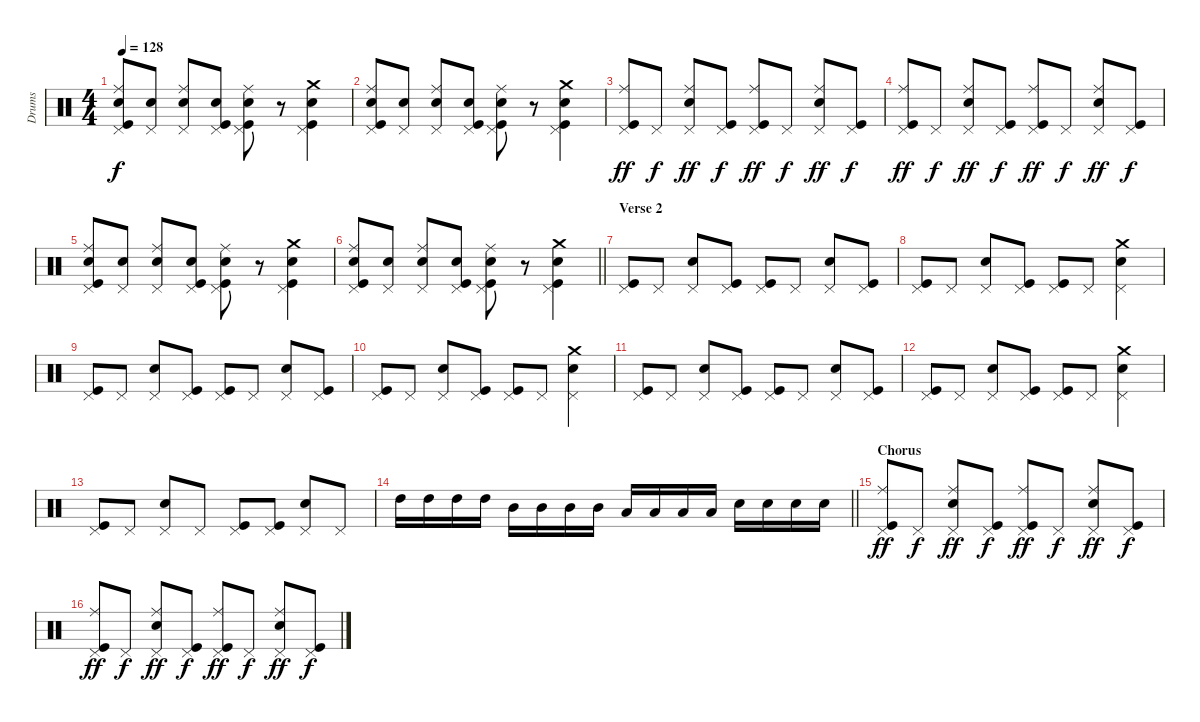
\track ("Drums" "Drums") {instrument percussion}
\staff {score}
\articulation defaults
\ts (4 4)
\tempo 128
\clef neutral
\ks c
("Ride (middle)" "Pedal Hi-Hat (hit)" "Snare (hit) 2" "Kick (hit)").8{dy f} ("Pedal Hi-Hat (hit)" "Snare (hit) 2").8 ("Ride (middle)" "Pedal Hi-Hat (hit)" "Snare (hit) 2").8 ("Pedal Hi-Hat (hit)" "Snare (hit) 2" "Kick (hit)").8 ("Ride (middle)" "Pedal Hi-Hat (hit)" "Snare (hit) 2" "Kick (hit)").8 r.8 ("Crash medium (hit)" "Pedal Hi-Hat (hit)" "Snare (hit) 2" "Kick (hit)").4 |
("Ride (middle)" "Pedal Hi-Hat (hit)" "Snare (hit) 2" "Kick (hit)").8 ("Pedal Hi-Hat (hit)" "Snare (hit) 2").8 ("Ride (middle)" "Pedal Hi-Hat (hit)" "Snare (hit) 2").8 ("Pedal Hi-Hat (hit)" "Snare (hit) 2" "Kick (hit)").8 ("Ride (middle)" "Pedal Hi-Hat (hit)" "Snare (hit) 2" "Kick (hit)").8 r.8 ("Crash medium (hit)" "Pedal Hi-Hat (hit)" "Snare (hit) 2" "Kick (hit)").4 |
("Ride (middle)" "Pedal Hi-Hat (hit)" "Kick (hit)").8{dy ff} "Pedal Hi-Hat (hit)".8{dy f} ("Ride (middle)" "Snare (hit) 2" "Pedal Hi-Hat (hit)").8{dy ff} ("Pedal Hi-Hat (hit)" "Kick (hit)").8{dy f} ("Ride (middle)" "Pedal Hi-Hat (hit)" "Kick (hit)").8{dy ff} "Pedal Hi-Hat (hit)".8{dy f} ("Ride (middle)" "Snare (hit) 2" "Pedal Hi-Hat (hit)").8{dy ff} ("Pedal Hi-Hat (hit)" "Kick (hit)").8{dy f} |
("Ride (middle)" "Pedal Hi-Hat (hit)" "Kick (hit)").8{dy ff} "Pedal Hi-Hat (hit)".8{dy f} ("Ride (middle)" "Snare (hit) 2" "Pedal Hi-Hat (hit)").8{dy ff} ("Pedal Hi-Hat (hit)" "Kick (hit)").8{dy f} ("Ride (middle)" "Pedal Hi-Hat (hit)" "Kick (hit)").8{dy ff} "Pedal Hi-Hat (hit)".8{dy f} ("Ride (middle)" "Snare (hit) 2" "Pedal Hi-Hat (hit)").8{dy ff} ("Pedal Hi-Hat (hit)" "Kick (hit)").8{dy f} |
("Ride (middle)" "Pedal Hi-Hat (hit)" "Snare (hit) 2" "Kick (hit)").8 ("Pedal Hi-Hat (hit)" "Snare (hit) 2").8 ("Ride (middle)" "Pedal Hi-Hat (hit)" "Snare (hit) 2").8 ("Pedal Hi-Hat (hit)" "Snare (hit) 2" "Kick (hit)").8 ("Ride (middle)" "Pedal Hi-Hat (hit)" "Snare (hit) 2" "Kick (hit)").8 r.8 ("Crash medium (hit)" "Pedal Hi-Hat (hit)" "Snare (hit) 2" "Kick (hit)").4 |
\barLineRight lightlight
("Ride (middle)" "Pedal Hi-Hat (hit)" "Snare (hit) 2" "Kick (hit)").8 ("Pedal Hi-Hat (hit)" "Snare (hit) 2").8 ("Ride (middle)" "Pedal Hi-Hat (hit)" "Snare (hit) 2").8 ("Pedal Hi-Hat (hit)" "Snare (hit) 2" "Kick (hit)").8 ("Ride (middle)" "Pedal Hi-Hat (hit)" "Snare (hit) 2" "Kick (hit)").8 r.8 ("Crash medium (hit)" "Pedal Hi-Hat (hit)" "Snare (hit) 2" "Kick (hit)").4 |
\section ("" "Verse 2")
("Pedal Hi-Hat (hit)" "Kick (hit)").8 "Pedal Hi-Hat (hit)".8 ("Snare (hit) 2" "Pedal Hi-Hat (hit)").8 ("Pedal Hi-Hat (hit)" "Kick (hit)").8 ("Pedal Hi-Hat (hit)" "Kick (hit)").8 "Pedal Hi-Hat (hit)".8 ("Snare (hit) 2" "Pedal Hi-Hat (hit)").8 ("Pedal Hi-Hat (hit)" "Kick (hit)").8 |
("Pedal Hi-Hat (hit)" "Kick (hit)").8 "Pedal Hi-Hat (hit)".8 ("Snare (hit) 2" "Pedal Hi-Hat (hit)").8 ("Pedal Hi-Hat (hit)" "Kick (hit)").8 ("Pedal Hi-Hat (hit)" "Kick (hit)").8 "Pedal Hi-Hat (hit)".8 ("Crash medium (hit)" "Snare (hit) 2" "Pedal Hi-Hat (hit)").4 |
("Pedal Hi-Hat (hit)" "Kick (hit)").8 "Pedal Hi-Hat (hit)".8 ("Snare (hit) 2" "Pedal Hi-Hat (hit)").8 ("Pedal Hi-Hat (hit)" "Kick (hit)").8 ("Pedal Hi-Hat (hit)" "Kick (hit)").8 "Pedal Hi-Hat (hit)".8 ("Snare (hit) 2" "Pedal Hi-Hat (hit)").8 ("Pedal Hi-Hat (hit)" "Kick (hit)").8 |
("Pedal Hi-Hat (hit)" "Kick (hit)").8 "Pedal Hi-Hat (hit)".8 ("Snare (hit) 2" "Pedal Hi-Hat (hit)").8 ("Pedal Hi-Hat (hit)" "Kick (hit)").8 ("Pedal Hi-Hat (hit)" "Kick (hit)").8 "Pedal Hi-Hat (hit)".8 ("Crash medium (hit)" "Snare (hit) 2" "Pedal Hi-Hat (hit)").4 |
("Pedal Hi-Hat (hit)" "Kick (hit)").8 "Pedal Hi-Hat (hit)".8 ("Snare (hit) 2" "Pedal Hi-Hat (hit)").8 ("Pedal Hi-Hat (hit)" "Kick (hit)").8 ("Pedal Hi-Hat (hit)" "Kick (hit)").8 "Pedal Hi-Hat (hit)".8 ("Snare (hit) 2" "Pedal Hi-Hat (hit)").8 ("Pedal Hi-Hat (hit)" "Kick (hit)").8 |
("Pedal Hi-Hat (hit)" "Kick (hit)").8 "Pedal Hi-Hat (hit)".8 ("Snare (hit) 2" "Pedal Hi-Hat (hit)").8 ("Pedal Hi-Hat (hit)" "Kick (hit)").8 ("Pedal Hi-Hat (hit)" "Kick (hit)").8 "Pedal Hi-Hat (hit)".8 ("Crash medium (hit)" "Snare (hit) 2" "Pedal Hi-Hat (hit)").4 |
("Pedal Hi-Hat (hit)" "Kick (hit)").8 "Pedal Hi-Hat (hit)".8 ("Snare (hit) 2" "Pedal Hi-Hat (hit)").8 "Pedal Hi-Hat (hit)".8 ("Pedal Hi-Hat (hit)" "Kick (hit)").8 ("Pedal Hi-Hat (hit)" "Kick (hit)").8 ("Snare (hit) 2" "Pedal Hi-Hat (hit)").8 "Pedal Hi-Hat (hit)".8 |
\barLineRight lightlight "High Tom (hit)".16 "High Tom (hit)".16 "High Tom (hit)".16 "High Tom (hit)".16 "Mid Tom (hit)".16 "Mid Tom (hit)".16 "Mid Tom (hit)".16 "Mid Tom (hit)".16 "Low Tom (hit)".16 "Low Tom (hit)".16 "Low Tom (hit)".16 "Low Tom (hit)".16 "Snare (hit) 2".16 "Snare (hit) 2".16 "Snare (hit) 2".16 "Snare (hit) 2".16
|
\section ("" "Chorus")
("Ride (middle)" "Pedal Hi-Hat (hit)" "Kick (hit)").8{dy ff} "Pedal Hi-Hat (hit)".8{dy f} ("Ride (middle)" "Snare (hit) 2" "Pedal Hi-Hat (hit)").8{dy ff} ("Pedal Hi-Hat (hit)" "Kick (hit)").8{dy f} ("Ride (middle)" "Pedal Hi-Hat (hit)" "Kick (hit)").8{dy ff} "Pedal Hi-Hat (hit)".8{dy f} ("Ride (middle)" "Snare (hit) 2" "Pedal Hi-Hat (hit)").8{dy ff} ("Pedal Hi-Hat (hit)" "Kick (hit)").8{dy f} |
("Ride (middle)" "Pedal Hi-Hat (hit)" "Kick (hit)").8{dy ff} "Pedal Hi-Hat (hit)".8{dy f} ("Ride (middle)" "Snare (hit) 2" "Pedal Hi-Hat (hit)").8{dy ff} ("Pedal Hi-Hat (hit)" "Kick (hit)").8{dy f} ("Ride (middle)" "Pedal Hi-Hat (hit)" "Kick (hit)").8{dy ff} "Pedal Hi-Hat (hit)".8{dy f} ("Ride (middle)" "Snare (hit) 2" "Pedal Hi-Hat (hit)").8{dy ff} ("Pedal Hi-Hat (hit)" "Kick (hit)").8{dy f}
